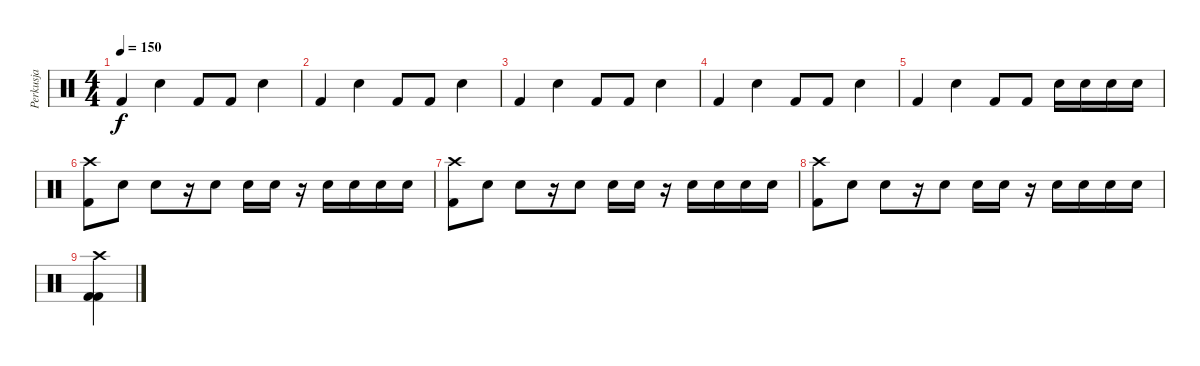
\track ("Perkusja" "Perkusja") {instrument percussion}
\staff {score}
\articulation defaults
\ts (4 4)
\tempo 150
\clef neutral
\ks c "Kick (hit) 2".4{dy f} "Electric Snare (hit)".4 "Kick (hit) 2".8 "Kick (hit) 2".8 "Electric Snare (hit)".4
|
"Kick (hit) 2".4 "Electric Snare (hit)".4 "Kick (hit) 2".8 "Kick (hit) 2".8 "Electric Snare (hit)".4 |
"Kick (hit) 2".4 "Electric Snare (hit)".4 "Kick (hit) 2".8 "Kick (hit) 2".8 "Electric Snare (hit)".4 |
"Kick (hit) 2".4 "Electric Snare (hit)".4 "Kick (hit) 2".8 "Kick (hit) 2".8 "Electric Snare (hit)".4 |
"Kick (hit) 2".4 "Electric Snare (hit)".4 "Kick (hit) 2".8 "Kick (hit) 2".8 "Electric Snare (hit)".16 "Electric Snare (hit)".16 "Electric Snare (hit)".16 "Electric Snare (hit)".16 |
("Crash high (hit)" "Kick (hit) 2").8 "Electric Snare (hit)".8 "Electric Snare (hit)".8 r.16 "Electric Snare (hit)".8 "Electric Snare (hit)".16 "Electric Snare (hit)".16 r.16 "Electric Snare (hit)".16 "Electric Snare (hit)".16 "Electric Snare (hit)".16 "Electric Snare (hit)".16 |
("Crash high (hit)" "Kick (hit) 2").8 "Electric Snare (hit)".8 "Electric Snare (hit)".8 r.16 "Electric Snare (hit)".8 "Electric Snare (hit)".16 "Electric Snare (hit)".16 r.16 "Electric Snare (hit)".16 "Electric Snare (hit)".16 "Electric Snare (hit)".16 "Electric Snare (hit)".16 |
("Crash high (hit)" "Kick (hit) 2").8 "Electric Snare (hit)".8 "Electric Snare (hit)".8 r.16 "Electric Snare (hit)".8 "Electric Snare (hit)".16 "Electric Snare (hit)".16 r.16 "Electric Snare (hit)".16 "Electric Snare (hit)".16 "Electric Snare (hit)".16 "Electric Snare (hit)".16 |
("Crash high (hit)" "Kick (hit) 2" "Kick (hit) 2").4
